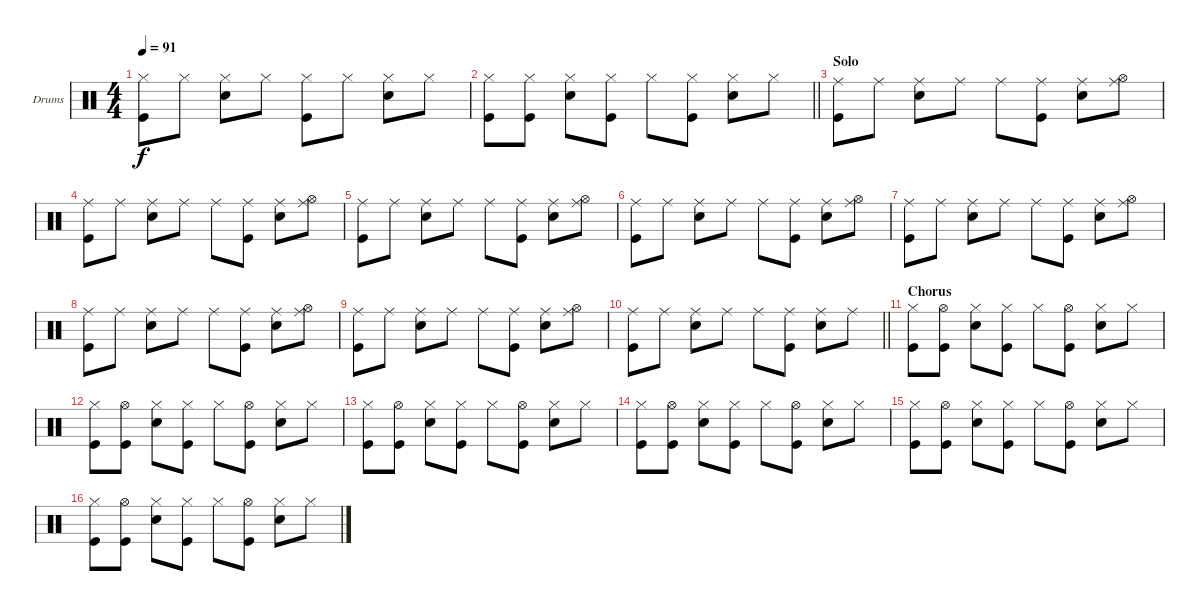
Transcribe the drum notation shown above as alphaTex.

\bracketExtendMode groupsimilarinstruments
\firstSystemTrackNameOrientation horizontal
\otherSystemsTrackNameOrientation horizontal
\track ("Fabrizio" "Drums") {instrument percussion}
\staff {score}
\articulation defaults
\ts (4 4)
\tempo 91
\clef neutral
\ks c
("Hi-Hat (closed)" "Kick (hit)").8{dy f} "Hi-Hat (closed)".8 ("Hi-Hat (closed)" "Snare (hit) 2").8 "Hi-Hat (closed)".8 ("Hi-Hat (closed)" "Kick (hit)").8 "Hi-Hat (closed)".8 ("Hi-Hat (closed)" "Snare (hit) 2").8 "Hi-Hat (closed)".8 |
\barLineRight lightlight
("Hi-Hat (closed)" "Kick (hit)").8 ("Hi-Hat (closed)" "Kick (hit)").8 ("Hi-Hat (closed)" "Snare (hit) 2").8 ("Hi-Hat (closed)" "Kick (hit)").8 "Hi-Hat (closed)".8 ("Hi-Hat (closed)" "Kick (hit)").8 ("Hi-Hat (closed)" "Snare (hit) 2").8 "Hi-Hat (closed)".8 |
\section ("" "Solo")
("Kick (hit)" "Ride (middle)").8 "Ride (middle)".8 ("Snare (hit) 2" "Ride (middle)").8 "Ride (middle)".8 "Ride (middle)".8 ("Kick (hit)" "Ride (middle)").8 ("Snare (hit) 2" "Ride (middle)").8 ("Hi-Hat (open)" "Ride (middle)").8 |
("Kick (hit)" "Ride (middle)").8 "Ride (middle)".8 ("Snare (hit) 2" "Ride (middle)").8 "Ride (middle)".8 "Ride (middle)".8 ("Kick (hit)" "Ride (middle)").8 ("Snare (hit) 2" "Ride (middle)").8 ("Hi-Hat (open)" "Ride (middle)").8 |
("Kick (hit)" "Ride (middle)").8 "Ride (middle)".8 ("Snare (hit) 2" "Ride (middle)").8 "Ride (middle)".8 "Ride (middle)".8 ("Kick (hit)" "Ride (middle)").8 ("Snare (hit) 2" "Ride (middle)").8 ("Hi-Hat (open)" "Ride (middle)").8 |
("Kick (hit)" "Ride (middle)").8 "Ride (middle)".8 ("Snare (hit) 2" "Ride (middle)").8 "Ride (middle)".8 "Ride (middle)".8 ("Kick (hit)" "Ride (middle)").8 ("Snare (hit) 2" "Ride (middle)").8 ("Hi-Hat (open)" "Ride (middle)").8 |
("Kick (hit)" "Ride (middle)").8 "Ride (middle)".8 ("Snare (hit) 2" "Ride (middle)").8 "Ride (middle)".8 "Ride (middle)".8 ("Kick (hit)" "Ride (middle)").8 ("Snare (hit) 2" "Ride (middle)").8 ("Hi-Hat (open)" "Ride (middle)").8 |
("Kick (hit)" "Ride (middle)").8 "Ride (middle)".8 ("Snare (hit) 2" "Ride (middle)").8 "Ride (middle)".8 "Ride (middle)".8 ("Kick (hit)" "Ride (middle)").8 ("Snare (hit) 2" "Ride (middle)").8 ("Hi-Hat (open)" "Ride (middle)").8 |
("Kick (hit)" "Ride (middle)").8 "Ride (middle)".8 ("Snare (hit) 2" "Ride (middle)").8 "Ride (middle)".8 "Ride (middle)".8 ("Kick (hit)" "Ride (middle)").8 ("Snare (hit) 2" "Ride (middle)").8 ("Hi-Hat (open)" "Ride (middle)").8 |
\barLineRight lightlight
("Kick (hit)" "Ride (middle)").8 "Ride (middle)".8 ("Snare (hit) 2" "Ride (middle)").8 "Ride (middle)".8 "Ride (middle)".8 ("Kick (hit)" "Ride (middle)").8 ("Snare (hit) 2" "Ride (middle)").8 "Ride (middle)".8 |
\section ("" "Chorus")
("Hi-Hat (closed)" "Kick (hit)").8 ("Hi-Hat (open)" "Kick (hit)").8 ("Snare (hit) 2" "Hi-Hat (closed)").8 ("Hi-Hat (closed)" "Kick (hit)").8 "Hi-Hat (closed)".8 ("Hi-Hat (open)" "Kick (hit)").8 ("Snare (hit) 2" "Hi-Hat (closed)").8 "Hi-Hat (closed)".8 |
("Hi-Hat (closed)" "Kick (hit)").8 ("Hi-Hat (open)" "Kick (hit)").8 ("Snare (hit) 2" "Hi-Hat (closed)").8 ("Hi-Hat (closed)" "Kick (hit)").8 "Hi-Hat (closed)".8 ("Hi-Hat (open)" "Kick (hit)").8 ("Snare (hit) 2" "Hi-Hat (closed)").8 "Hi-Hat (closed)".8 |
("Hi-Hat (closed)" "Kick (hit)").8 ("Hi-Hat (open)" "Kick (hit)").8 ("Snare (hit) 2" "Hi-Hat (closed)").8 ("Hi-Hat (closed)" "Kick (hit)").8 "Hi-Hat (closed)".8 ("Hi-Hat (open)" "Kick (hit)").8 ("Snare (hit) 2" "Hi-Hat (closed)").8 "Hi-Hat (closed)".8 |
("Hi-Hat (closed)" "Kick (hit)").8 ("Hi-Hat (open)" "Kick (hit)").8 ("Snare (hit) 2" "Hi-Hat (closed)").8 ("Hi-Hat (closed)" "Kick (hit)").8 "Hi-Hat (closed)".8 ("Hi-Hat (open)" "Kick (hit)").8 ("Snare (hit) 2" "Hi-Hat (closed)").8 "Hi-Hat (closed)".8 |
("Hi-Hat (closed)" "Kick (hit)").8 ("Hi-Hat (open)" "Kick (hit)").8 ("Snare (hit) 2" "Hi-Hat (closed)").8 ("Hi-Hat (closed)" "Kick (hit)").8 "Hi-Hat (closed)".8 ("Hi-Hat (open)" "Kick (hit)").8 ("Snare (hit) 2" "Hi-Hat (closed)").8 "Hi-Hat (closed)".8 |
("Hi-Hat (closed)" "Kick (hit)").8 ("Hi-Hat (open)" "Kick (hit)").8 ("Snare (hit) 2" "Hi-Hat (closed)").8 ("Hi-Hat (closed)" "Kick (hit)").8 "Hi-Hat (closed)".8 ("Hi-Hat (open)" "Kick (hit)").8 ("Snare (hit) 2" "Hi-Hat (closed)").8 "Hi-Hat (closed)".8
